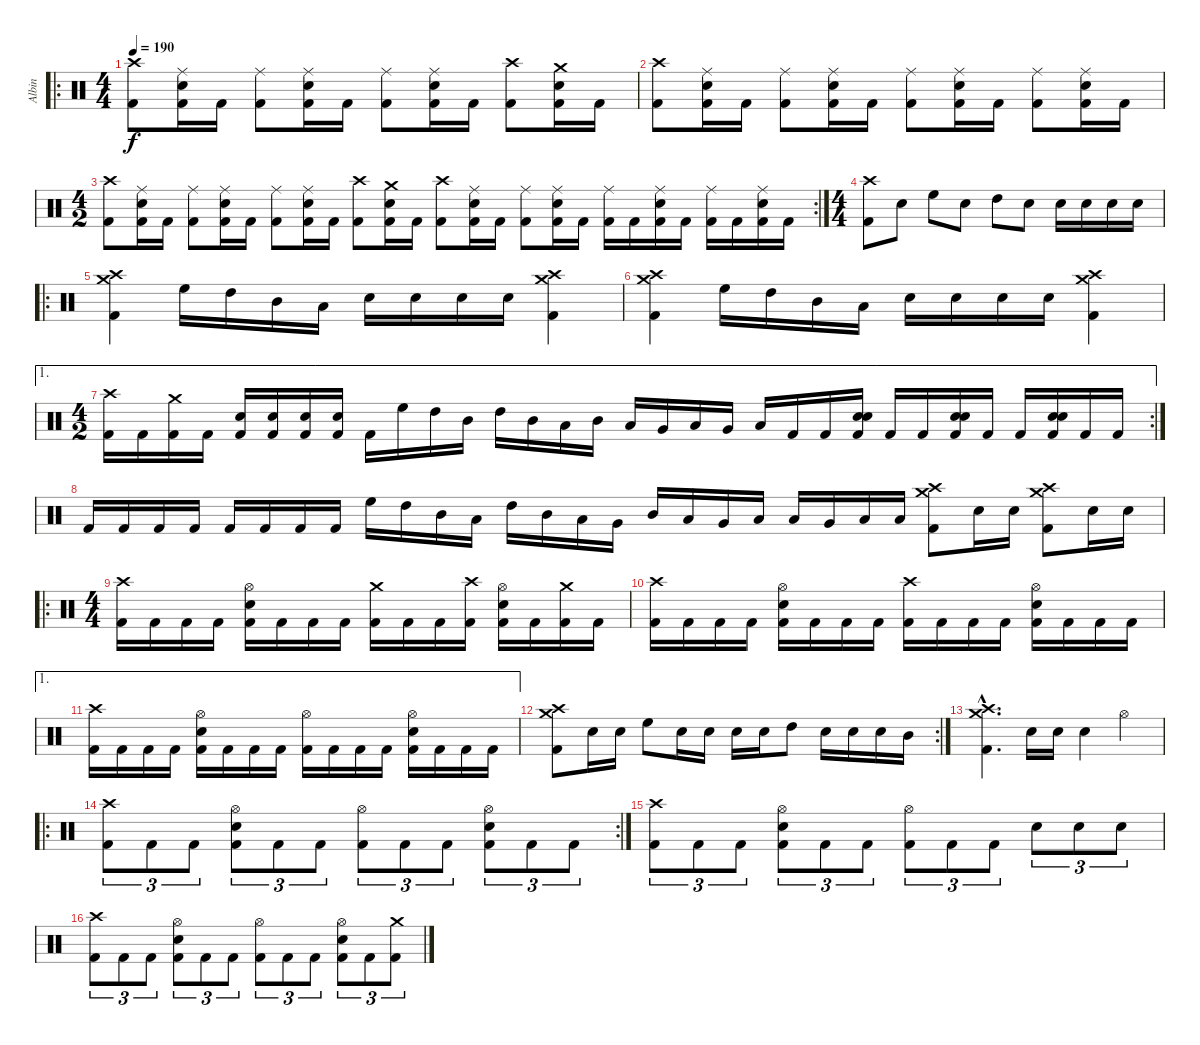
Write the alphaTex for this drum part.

\track ("Albin" "Albin") {instrument percussion}
\staff {score}
\articulation defaults
\ro
\ts (4 4)
\tempo 190
\clef neutral
\ks c
("Kick (hit) 2" "Crash high (hit)").8{dy f} ("Kick (hit) 2" "Electric Snare (hit)" "Ride (middle)").16 "Kick (hit) 2".16 ("Kick (hit) 2" "Ride (middle)").8 ("Kick (hit) 2" "Electric Snare (hit)" "Ride (middle)").16 "Kick (hit) 2".16 ("Kick (hit) 2" "Ride (middle)").8 ("Kick (hit) 2" "Electric Snare (hit)" "Ride (middle)").16 "Kick (hit) 2".16 ("Kick (hit) 2" "Crash high (hit)").8 ("Kick (hit) 2" "Electric Snare (hit)" "Crash medium (hit)").16 "Kick (hit) 2".16 |
("Kick (hit) 2" "Crash high (hit)").8 ("Kick (hit) 2" "Electric Snare (hit)" "Ride (middle)").16 "Kick (hit) 2".16 ("Kick (hit) 2" "Ride (middle)").8 ("Kick (hit) 2" "Electric Snare (hit)" "Ride (middle)").16 "Kick (hit) 2".16 ("Kick (hit) 2" "Ride (middle)").8 ("Kick (hit) 2" "Electric Snare (hit)" "Ride (middle)").16 "Kick (hit) 2".16 ("Kick (hit) 2" "Ride (middle)").8 ("Kick (hit) 2" "Electric Snare (hit)" "Ride (middle)").16 "Kick (hit) 2".16 |
\rc 2
\ts (4 2)
("Kick (hit) 2" "Crash high (hit)").8 ("Kick (hit) 2" "Electric Snare (hit)" "Ride (middle)").16 "Kick (hit) 2".16 ("Kick (hit) 2" "Ride (middle)").8 ("Kick (hit) 2" "Electric Snare (hit)" "Ride (middle)").16 "Kick (hit) 2".16 ("Kick (hit) 2" "Ride (middle)").8 ("Kick (hit) 2" "Electric Snare (hit)" "Ride (middle)").16 "Kick (hit) 2".16 ("Kick (hit) 2" "Crash high (hit)").8 ("Kick (hit) 2" "Electric Snare (hit)" "Crash medium (hit)").16 "Kick (hit) 2".16 ("Kick (hit) 2" "Crash high (hit)").8 ("Kick (hit) 2" "Electric Snare (hit)" "Ride (middle)").16 "Kick (hit) 2".16 ("Kick (hit) 2" "Ride (middle)").8 ("Kick (hit) 2" "Electric Snare (hit)" "Ride (middle)").16 "Kick (hit) 2".16 ("Kick (hit) 2" "Ride (middle)").16 "Kick (hit) 2".16 ("Kick (hit) 2" "Electric Snare (hit)" "Ride (middle)").16 "Kick (hit) 2".16 ("Kick (hit) 2" "Ride (middle)").16 "Kick (hit) 2".16 ("Kick (hit) 2" "Electric Snare (hit)" "Ride (middle)").16 "Kick (hit) 2".16 |
\ts (4 4)
("Kick (hit) 2" "Crash high (hit)").8 "Electric Snare (hit)".8 "High Floor Tom (hit)".8 "Electric Snare (hit)".8 "High Tom (hit)".8 "Electric Snare (hit)".8 "Electric Snare (hit)".16 "Electric Snare (hit)".16 "Electric Snare (hit)".16 "Electric Snare (hit)".16 |
\ro
("Kick (hit) 2" "Crash high (hit)" "Crash medium (hit)").4 "High Floor Tom (hit)".16 "High Tom (hit)".16 "Mid Tom (hit)".16 "Low Tom (hit)".16 "Electric Snare (hit)".16 "Electric Snare (hit)".16 "Electric Snare (hit)".16 "Electric Snare (hit)".16 ("Kick (hit) 2" "Crash high (hit)" "Crash medium (hit)").4 |
("Kick (hit) 2" "Crash high (hit)" "Crash medium (hit)").4 "High Floor Tom (hit)".16 "High Tom (hit)".16 "Mid Tom (hit)".16 "Low Tom (hit)".16 "Electric Snare (hit)".16 "Electric Snare (hit)".16 "Electric Snare (hit)".16 "Electric Snare (hit)".16 ("Kick (hit) 2" "Crash high (hit)" "Crash medium (hit)").4 |
\ae 1
\rc 2
\ts (4 2)
("Kick (hit) 2" "Crash high (hit)").16 "Kick (hit) 2".16 ("Kick (hit) 2" "Crash medium (hit)").16 "Kick (hit) 2".16 ("Kick (hit) 2" "Electric Snare (hit)").16 ("Kick (hit) 2" "Electric Snare (hit)").16 ("Kick (hit) 2" "Electric Snare (hit)").16 ("Kick (hit) 2" "Electric Snare (hit)").16 "Kick (hit) 2".16 "High Floor Tom (hit)".16 "High Tom (hit)".16 "Mid Tom (hit)".16 "High Tom (hit)".16 "Mid Tom (hit)".16 "Low Tom (hit)".16 "Mid Tom (hit)".16 "Low Tom (hit)".16 "Very Low Tom (hit)".16 "Low Tom (hit)".16 "Very Low Tom (hit)".16 "Low Floor Tom (hit)".16 "Kick (hit) 2".16 "Kick (hit) 2".16 ("Kick (hit) 2" "Electric Snare (hit)" "Electric Snare (hit)").16 "Kick (hit) 2".16 "Kick (hit) 2".16 ("Kick (hit) 2" "Electric Snare (hit)" "Electric Snare (hit)").16 "Kick (hit) 2".16 "Kick (hit) 2".16 ("Kick (hit) 2" "Electric Snare (hit)" "Electric Snare (hit)").16 "Kick (hit) 2".16 "Kick (hit) 2".16 |
"Kick (hit) 2".16 "Kick (hit) 2".16 "Kick (hit) 2".16 "Kick (hit) 2".16 "Kick (hit) 2".16 "Kick (hit) 2".16 "Kick (hit) 2".16 "Kick (hit) 2".16 "High Floor Tom (hit)".16 "High Tom (hit)".16 "Mid Tom (hit)".16 "Low Tom (hit)".16 "High Tom (hit)".16 "Mid Tom (hit)".16 "Low Tom (hit)".16 "Very Low Tom (hit)".16 "Mid Tom (hit)".16 "Low Tom (hit)".16 "Very Low Tom (hit)".16 "Low Floor Tom (hit)".16 "Low Tom (hit)".16 "Very Low Tom (hit)".16 "Low Floor Tom (hit)".16 "Low Floor Tom (hit)".16 ("Kick (hit) 2" "Crash high (hit)" "Crash medium (hit)").8 "Electric Snare (hit)".16 "Electric Snare (hit)".16 ("Kick (hit) 2" "Crash high (hit)" "Crash medium (hit)").8 "Electric Snare (hit)".16 "Electric Snare (hit)".16 |
\ro
\ts (4 4)
("Kick (hit) 2" "Crash high (hit)").16 "Kick (hit) 2".16 "Kick (hit) 2".16 "Kick (hit) 2".16 ("Kick (hit) 2" "Electric Snare (hit)" "Hi-Hat (open)").16 "Kick (hit) 2".16 "Kick (hit) 2".16 "Kick (hit) 2".16 ("Kick (hit) 2" "Crash medium (hit)").16 "Kick (hit) 2".16 "Kick (hit) 2".16 ("Kick (hit) 2" "Crash high (hit)").16 ("Kick (hit) 2" "Electric Snare (hit)" "Hi-Hat (open)").16 "Kick (hit) 2".16 ("Kick (hit) 2" "Crash medium (hit)").16 "Kick (hit) 2".16 |
("Kick (hit) 2" "Crash high (hit)").16 "Kick (hit) 2".16 "Kick (hit) 2".16 "Kick (hit) 2".16 ("Kick (hit) 2" "Electric Snare (hit)" "Hi-Hat (open)").16 "Kick (hit) 2".16 "Kick (hit) 2".16 "Kick (hit) 2".16 ("Kick (hit) 2" "Crash high (hit)").16 "Kick (hit) 2".16 "Kick (hit) 2".16 "Kick (hit) 2".16 ("Kick (hit) 2" "Electric Snare (hit)" "Hi-Hat (open)").16 "Kick (hit) 2".16 "Kick (hit) 2".16 "Kick (hit) 2".16 |
\ae 1
("Kick (hit) 2" "Crash high (hit)").16 "Kick (hit) 2".16 "Kick (hit) 2".16 "Kick (hit) 2".16 ("Kick (hit) 2" "Electric Snare (hit)" "Hi-Hat (open)").16 "Kick (hit) 2".16 "Kick (hit) 2".16 "Kick (hit) 2".16 ("Kick (hit) 2" "Hi-Hat (open)").16 "Kick (hit) 2".16 "Kick (hit) 2".16 "Kick (hit) 2".16 ("Kick (hit) 2" "Electric Snare (hit)" "Hi-Hat (open)").16 "Kick (hit) 2".16 "Kick (hit) 2".16 "Kick (hit) 2".16 |
\rc 2
("Kick (hit) 2" "Crash high (hit)" "Crash medium (hit)").8 "Electric Snare (hit)".16 "Electric Snare (hit)".16 "High Floor Tom (hit)".8 "Electric Snare (hit)".16 "Electric Snare (hit)".16 "Electric Snare (hit)".16 "Electric Snare (hit)".16 "High Tom (hit)".8 "Electric Snare (hit)".16 "Electric Snare (hit)".16 "Electric Snare (hit)".16 "Mid Tom (hit)".16 |
("Kick (hit) 2"{hac} "Crash high (hit)"{hac} "Crash medium (hit)"{hac}).4{d} "Electric Snare (hit)".16 "Electric Snare (hit)".16 "Electric Snare (hit)".4 "Hi-Hat (open)".4 |
\ro
\rc 2
("Kick (hit) 2" "Crash high (hit)").8{tu (3 2)} "Kick (hit) 2".8{tu (3 2)} "Kick (hit) 2".8{tu (3 2)} ("Kick (hit) 2" "Electric Snare (hit)" "Hi-Hat (open)").8{tu (3 2)} "Kick (hit) 2".8{tu (3 2)} "Kick (hit) 2".8{tu (3 2)} ("Kick (hit) 2" "Hi-Hat (open)").8{tu (3 2)} "Kick (hit) 2".8{tu (3 2)} "Kick (hit) 2".8{tu (3 2)} ("Kick (hit) 2" "Electric Snare (hit)" "Hi-Hat (open)").8{tu (3 2)} "Kick (hit) 2".8{tu (3 2)} "Kick (hit) 2".8{tu (3 2)} |
("Kick (hit) 2" "Crash high (hit)").8{tu (3 2)} "Kick (hit) 2".8{tu (3 2)} "Kick (hit) 2".8{tu (3 2)} ("Kick (hit) 2" "Electric Snare (hit)" "Hi-Hat (open)").8{tu (3 2)} "Kick (hit) 2".8{tu (3 2)} "Kick (hit) 2".8{tu (3 2)} ("Kick (hit) 2" "Hi-Hat (open)").8{tu (3 2)} "Kick (hit) 2".8{tu (3 2)} "Kick (hit) 2".8{tu (3 2)} "Electric Snare (hit)".8{tu (3 2)} "Electric Snare (hit)".8{tu (3 2)} "Electric Snare (hit)".8{tu (3 2)} |
("Kick (hit) 2" "Crash high (hit)").8{tu (3 2)} "Kick (hit) 2".8{tu (3 2)} "Kick (hit) 2".8{tu (3 2)} ("Kick (hit) 2" "Electric Snare (hit)" "Hi-Hat (open)").8{tu (3 2)} "Kick (hit) 2".8{tu (3 2)} "Kick (hit) 2".8{tu (3 2)} ("Kick (hit) 2" "Hi-Hat (open)").8{tu (3 2)} "Kick (hit) 2".8{tu (3 2)} "Kick (hit) 2".8{tu (3 2)} ("Kick (hit) 2" "Electric Snare (hit)" "Hi-Hat (open)").8{tu (3 2)} "Kick (hit) 2".8{tu (3 2)} ("Kick (hit) 2" "Crash medium (hit)").8{tu (3 2)}
